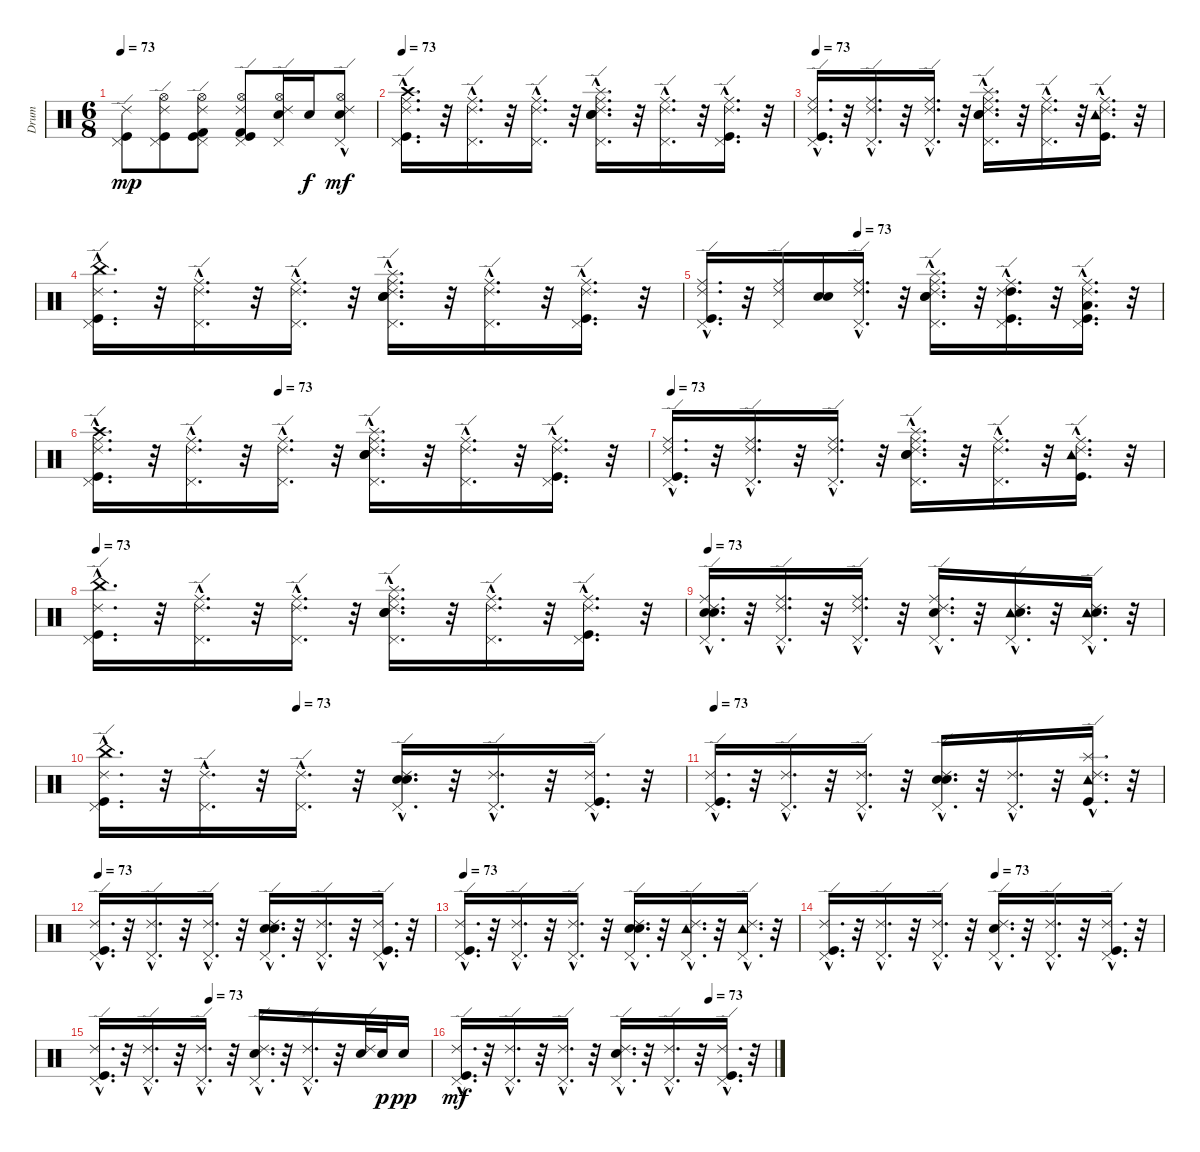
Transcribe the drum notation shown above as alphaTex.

\track ("Drum" "Drum") {instrument percussion}
\staff {score}
\articulation defaults
\ts (6 8)
\tempo 73
\clef neutral
\ks c
("Kick (hit)" "Pedal Hi-Hat (hit)" "Ride (edge) 2").8{dy mp} ("Kick (hit)" "Ride (edge) 2" "Pedal Hi-Hat (hit)" "Hi-Hat (open)").8 ("Kick (hit) 2" "Pedal Hi-Hat (hit)" "Kick (hit)" "Hi-Hat (open)" "Ride (edge) 2").8 ("Kick (hit) 2" "Ride (edge) 2" "Kick (hit)" "Pedal Hi-Hat (hit)" "Hi-Hat (open)").8 ("Ride (edge) 2" "Snare (hit) 2" "Pedal Hi-Hat (hit)" "Hi-Hat (open)").16 "Snare (hit) 2".16{dy f} ("Snare (hit) 2"{hac} "Hi-Hat (open)" "Pedal Hi-Hat (hit)"{hac} "Ride (edge) 2"{hac}).8{dy mf} |
\tempo 73
("Pedal Hi-Hat (hit)"{hac} "Ride (middle)"{hac} "Kick (hit)"{hac} "Crash high (hit)"{hac} "Ride (edge) 2"{hac}).16{d} r.32 ("Ride (edge) 2"{hac} "Pedal Hi-Hat (hit)"{hac} "Ride (middle)"{hac}).16{d} r.32 ("Pedal Hi-Hat (hit)"{hac} "Ride (middle)"{hac} "Ride (edge) 2"{hac}).16{d} r.32 ("Electric Snare (hit)"{hac} "Pedal Hi-Hat (hit)"{hac} "Snare (hit) 2"{hac} "Splash (hit)"{hac} "Ride (middle)"{hac} "Ride (edge) 2"{hac}).16{d} r.32 ("Pedal Hi-Hat (hit)"{hac} "Ride (middle)"{hac} "Ride (edge) 2"{hac}).16{d} r.32 ("Ride (middle)"{hac} "Ride (edge) 2"{hac} "Kick (hit)"{hac} "Pedal Hi-Hat (hit)"{hac}).16{d} r.32 |
\tempo 73
("Pedal Hi-Hat (hit)"{hac} "Ride (edge) 2"{hac} "Kick (hit)"{hac} "Ride (middle)"{hac}).16{d} r.32 ("Pedal Hi-Hat (hit)"{hac} "Ride (middle)"{hac} "Ride (edge) 2"{hac}).16{d} r.32 ("Pedal Hi-Hat (hit)"{hac} "Ride (middle)"{hac} "Ride (edge) 2"{hac}).16{d} r.32 ("Electric Snare (hit)"{hac} "Ride (edge) 2"{hac} "Ride (middle)"{hac} "Snare (hit) 2"{hac} "Pedal Hi-Hat (hit)"{hac} "Splash (hit)"{hac}).16{d} r.32 ("Pedal Hi-Hat (hit)"{hac} "Ride (middle)"{hac} "Ride (edge) 2"{hac}).16{d} r.32 ("Ride (edge) 2"{hac} "Tambourine (hit)"{hac} "Ride (middle)"{hac} "Kick (hit)"{hac}).16{d} r.32 |
("China (hit)"{hac} "Kick (hit)"{hac} "Pedal Hi-Hat (hit)"{hac} "Ride (edge) 2"{hac}).16{d} r.32 ("Ride (middle)"{hac} "Ride (edge) 2"{hac} "Pedal Hi-Hat (hit)"{hac}).16{d} r.32 ("Ride (middle)"{hac} "Pedal Hi-Hat (hit)"{hac} "Ride (edge) 2"{hac}).16{d} r.32 ("Ride (middle)"{hac} "Electric Snare (hit)"{hac} "Pedal Hi-Hat (hit)"{hac} "Splash (hit)"{hac} "Ride (edge) 2"{hac} "Snare (hit) 2"{hac}).16{d} r.32 ("Ride (middle)"{hac} "Pedal Hi-Hat (hit)"{hac} "Ride (edge) 2"{hac}).16{d} r.32 ("Ride (middle)"{hac} "Kick (hit)"{hac} "Ride (edge) 2"{hac} "Pedal Hi-Hat (hit)"{hac}).16{d} r.32 |
\tempo (73 0.3333333333333333)
("Ride (middle)"{hac} "Kick (hit)"{hac} "Pedal Hi-Hat (hit)"{hac} "Ride (edge) 2"{hac}).16{d} r.32 ("Ride (middle)" "Ride (edge) 2" "Pedal Hi-Hat (hit)").16 ("Electric Snare (hit)" "Snare (hit) 2").16 ("Ride (middle)"{hac} "Pedal Hi-Hat (hit)"{hac} "Ride (edge) 2"{hac}).16{d} r.32 ("Ride (middle)"{hac} "Electric Snare (hit)"{hac} "Pedal Hi-Hat (hit)"{hac} "Splash (hit)"{hac} "Snare (hit) 2"{hac} "Ride (edge) 2"{hac}).16{d} r.32 ("Ride (middle)"{hac} "High Tom (hit)"{hac} "Kick (hit)"{hac} "Pedal Hi-Hat (hit)"{hac} "Ride (edge) 2"{hac}).16{d} r.32 ("Ride (middle)"{hac} "Low Tom (hit)"{hac} "Kick (hit)"{hac} "Pedal Hi-Hat (hit)"{hac} "Ride (edge) 2"{hac}).16{d} r.32 |
\tempo (73 0.3333333333333333)
("Ride (middle)"{hac} "Ride (edge) 2"{hac} "Kick (hit)"{hac} "Pedal Hi-Hat (hit)"{hac} "Crash high (hit)"{hac}).16{d} r.32 ("Ride (middle)"{hac} "Pedal Hi-Hat (hit)"{hac} "Ride (edge) 2"{hac}).16{d} r.32 ("Ride (middle)"{hac} "Ride (edge) 2"{hac} "Pedal Hi-Hat (hit)"{hac}).16{d} r.32 ("Ride (middle)"{hac} "Electric Snare (hit)"{hac} "Ride (edge) 2"{hac} "Snare (hit) 2"{hac} "Pedal Hi-Hat (hit)"{hac} "Splash (hit)"{hac}).16{d} r.32 ("Ride (middle)"{hac} "Ride (edge) 2"{hac} "Pedal Hi-Hat (hit)"{hac}).16{d} r.32 ("Ride (middle)"{hac} "Ride (edge) 2"{hac} "Kick (hit)"{hac} "Pedal Hi-Hat (hit)"{hac}).16{d} r.32 |
\tempo 73
("Ride (middle)"{hac} "Kick (hit)"{hac} "Ride (edge) 2"{hac} "Pedal Hi-Hat (hit)"{hac}).16{d} r.32 ("Ride (middle)"{hac} "Pedal Hi-Hat (hit)"{hac} "Ride (edge) 2"{hac}).16{d} r.32 ("Ride (middle)"{hac} "Ride (edge) 2"{hac} "Pedal Hi-Hat (hit)"{hac}).16{d} r.32 ("Ride (middle)"{hac} "Electric Snare (hit)"{hac} "Ride (edge) 2"{hac} "Snare (hit) 2"{hac} "Pedal Hi-Hat (hit)"{hac} "Splash (hit)"{hac}).16{d} r.32 ("Ride (middle)"{hac} "Ride (edge) 2"{hac} "Pedal Hi-Hat (hit)"{hac}).16{d} r.32 ("Ride (middle)"{hac} "Kick (hit)"{hac} "Ride (edge) 2"{hac} "Tambourine (hit)"{hac}).16{d} r.32 |
\tempo 73
("China (hit)"{hac} "Ride (edge) 2"{hac} "Pedal Hi-Hat (hit)"{hac} "Kick (hit)"{hac}).16{d} r.32 ("Ride (middle)"{hac} "Ride (edge) 2"{hac} "Pedal Hi-Hat (hit)"{hac}).16{d} r.32 ("Ride (middle)"{hac} "Ride (edge) 2"{hac} "Pedal Hi-Hat (hit)"{hac}).16{d} r.32 ("Ride (middle)"{hac} "Electric Snare (hit)"{hac} "Ride (edge) 2"{hac} "Splash (hit)"{hac} "Pedal Hi-Hat (hit)"{hac} "Snare (hit) 2"{hac}).16{d} r.32 ("Ride (middle)"{hac} "Pedal Hi-Hat (hit)"{hac} "Ride (edge) 2"{hac}).16{d} r.32 ("Ride (middle)"{hac} "Pedal Hi-Hat (hit)"{hac} "Kick (hit)"{hac} "Ride (edge) 2"{hac}).16{d} r.32 |
\tempo 73
("Ride (middle)"{hac} "Electric Snare (hit)"{hac} "Pedal Hi-Hat (hit)"{hac} "Snare (hit) 2"{hac} "Ride (edge) 2"{hac}).16{d} r.32 ("Ride (middle)"{hac} "Pedal Hi-Hat (hit)"{hac} "Ride (edge) 2"{hac}).16{d} r.32 ("Ride (middle)"{hac} "Pedal Hi-Hat (hit)"{hac} "Ride (edge) 2"{hac}).16{d} r.32 ("Ride (middle)"{hac} "Pedal Hi-Hat (hit)"{hac} "Electric Snare (hit)"{hac} "Ride (edge) 2"{hac}).16{d} r.32 ("Tambourine (hit)"{hac} "Pedal Hi-Hat (hit)"{hac} "Snare (hit) 2"{hac} "Ride (edge) 2"{hac}).16{d} r.32 ("Tambourine (hit)"{hac} "Pedal Hi-Hat (hit)"{hac} "Snare (hit) 2"{hac} "Ride (edge) 2"{hac}).16{d} r.32 |
\tempo (73 0.3333333333333333)
("China (hit)"{hac} "Pedal Hi-Hat (hit)"{hac} "Kick (hit)"{hac} "Ride (edge) 2"{hac}).16{d} r.32 ("Ride (edge) 2"{hac} "Pedal Hi-Hat (hit)"{hac}).16{d} r.32 ("Pedal Hi-Hat (hit)"{hac} "Ride (edge) 2"{hac}).16{d} r.32 ("Electric Snare (hit)"{hac} "Pedal Hi-Hat (hit)"{hac} "Snare (hit) 2"{hac} "Ride (edge) 2"{hac}).16{d} r.32 ("Pedal Hi-Hat (hit)"{hac} "Ride (edge) 2"{hac}).16{d} r.32 ("Pedal Hi-Hat (hit)"{hac} "Kick (hit)"{hac} "Ride (edge) 2"{hac}).16{d} r.32 |
\tempo 73
("Pedal Hi-Hat (hit)"{hac} "Ride (edge) 2"{hac} "Kick (hit)"{hac}).16{d} r.32 ("Ride (edge) 2"{hac} "Pedal Hi-Hat (hit)"{hac}).16{d} r.32 ("Pedal Hi-Hat (hit)"{hac} "Ride (edge) 2"{hac}).16{d} r.32 ("Electric Snare (hit)"{hac} "Pedal Hi-Hat (hit)"{hac} "Snare (hit) 2"{hac} "Ride (edge) 2"{hac}).16{d} r.32 ("Pedal Hi-Hat (hit)"{hac} "Ride (edge) 2"{hac}).16{d} r.32 ("Splash (hit)"{hac} "Tambourine (hit)"{hac} "Ride (edge) 2"{hac} "Kick (hit)"{hac}).16{d} r.32 |
\tempo 73
("Kick (hit)"{hac} "Pedal Hi-Hat (hit)"{hac} "Ride (edge) 2"{hac}).16{d} r.32 ("Pedal Hi-Hat (hit)"{hac} "Ride (edge) 2"{hac}).16{d} r.32 ("Pedal Hi-Hat (hit)"{hac} "Ride (edge) 2"{hac}).16{d} r.32 ("Electric Snare (hit)"{hac} "Snare (hit) 2"{hac} "Pedal Hi-Hat (hit)"{hac} "Ride (edge) 2"{hac}).16{d} r.32 ("Ride (edge) 2"{hac} "Pedal Hi-Hat (hit)"{hac}).16{d} r.32 ("Ride (edge) 2"{hac} "Kick (hit)"{hac} "Pedal Hi-Hat (hit)"{hac}).16{d} r.32 |
\tempo 73
("Ride (edge) 2"{hac} "Kick (hit)"{hac} "Pedal Hi-Hat (hit)"{hac}).16{d} r.32 ("Ride (edge) 2"{hac} "Pedal Hi-Hat (hit)"{hac}).16{d} r.32 ("Ride (edge) 2"{hac} "Pedal Hi-Hat (hit)"{hac}).16{d} r.32 ("Electric Snare (hit)"{hac} "Ride (edge) 2"{hac} "Snare (hit) 2"{hac} "Pedal Hi-Hat (hit)"{hac}).16{d} r.32 ("Ride (edge) 2"{hac} "Pedal Hi-Hat (hit)"{hac} "Tambourine (hit)"{hac}).16{d} r.32 ("Ride (edge) 2"{hac} "Pedal Hi-Hat (hit)"{hac} "Tambourine (hit)"{hac}).16{d} r.32 |
\tempo (73 0.5)
("Kick (hit)"{hac} "Ride (edge) 2"{hac} "Pedal Hi-Hat (hit)"{hac}).16{d} r.32 ("Pedal Hi-Hat (hit)"{hac} "Ride (edge) 2"{hac}).16{d} r.32 ("Ride (edge) 2"{hac} "Pedal Hi-Hat (hit)"{hac}).16{d} r.32 ("Snare (hit) 2"{hac} "Pedal Hi-Hat (hit)"{hac} "Ride (edge) 2"{hac}).16{d} r.32 ("Ride (edge) 2"{hac} "Pedal Hi-Hat (hit)"{hac}).16{d} r.32 ("Pedal Hi-Hat (hit)"{hac} "Ride (edge) 2"{hac} "Kick (hit)"{hac}).16{d} r.32 |
\tempo (73 0.3333333333333333)
("Ride (edge) 2"{hac} "Pedal Hi-Hat (hit)"{hac} "Kick (hit)"{hac}).16{d} r.32 ("Ride (edge) 2"{hac} "Pedal Hi-Hat (hit)"{hac}).16{d} r.32 ("Ride (edge) 2"{hac} "Pedal Hi-Hat (hit)"{hac}).16{d} r.32 ("Ride (edge) 2"{hac} "Pedal Hi-Hat (hit)"{hac} "Snare (hit) 2"{hac}).16{d} r.32 ("Ride (edge) 2"{hac} "Pedal Hi-Hat (hit)"{hac}).16{d} r.32 ("Ride (edge) 2" "Snare (hit) 2").32 "Snare (hit) 2".32{dy p} "Snare (hit) 2".16{dy pp} |
\tempo (73 0.7916666666666666)
("Kick (hit)"{hac} "Pedal Hi-Hat (hit)"{hac} "Ride (edge) 2"{hac}).16{d dy mf} r.32 ("Pedal Hi-Hat (hit)"{hac} "Ride (edge) 2"{hac}).16{d} r.32 ("Pedal Hi-Hat (hit)"{hac} "Ride (edge) 2"{hac}).16{d} r.32 ("Snare (hit) 2"{hac} "Pedal Hi-Hat (hit)"{hac} "Ride (edge) 2"{hac}).16{d} r.32 ("Pedal Hi-Hat (hit)"{hac} "Ride (edge) 2"{hac}).16{d} r.32 ("Kick (hit)"{hac} "Pedal Hi-Hat (hit)"{hac} "Ride (edge) 2"{hac}).16{d} r.32
